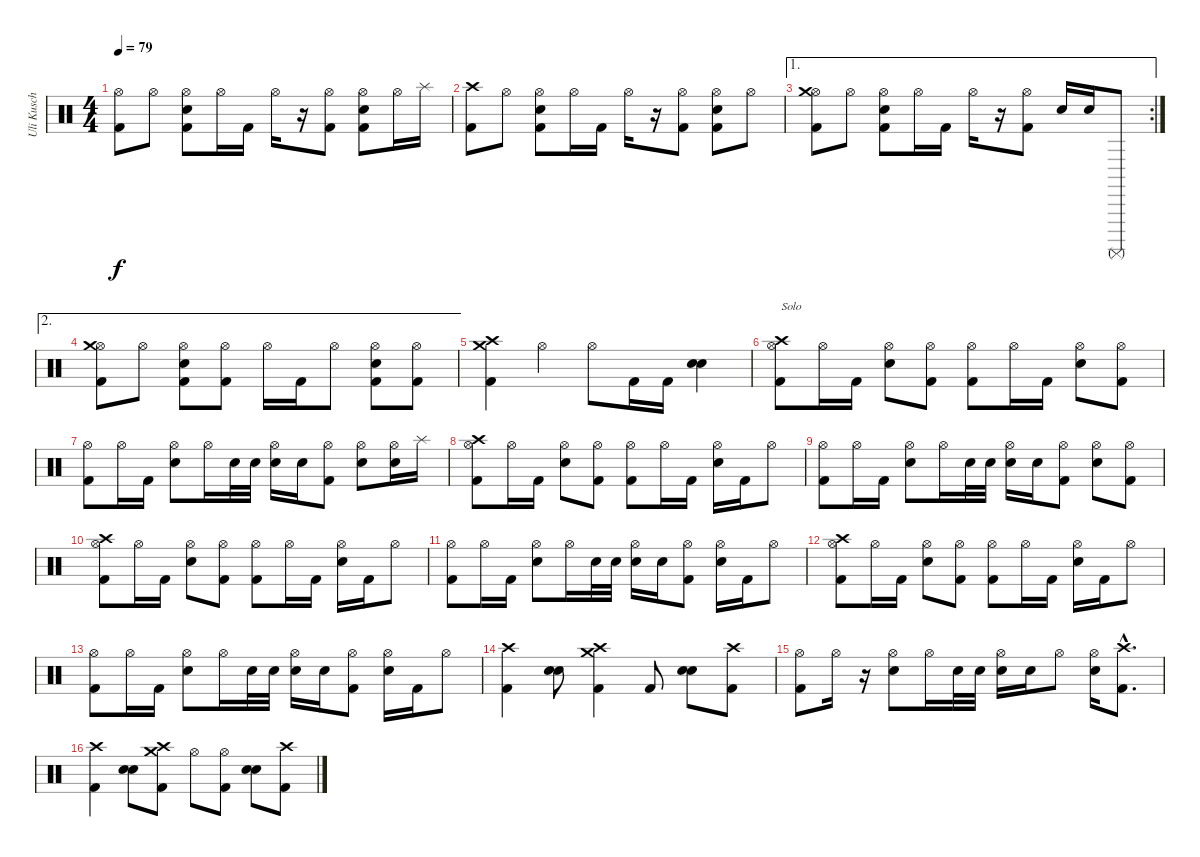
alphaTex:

\track ("Uli Kusch" "Uli Kusch") {instrument percussion}
\staff {score}
\articulation defaults
\ts (4 4)
\tempo 79
\clef neutral
\ks c
("Kick (hit) 2" "Hi-Hat (open)").8{dy f} "Hi-Hat (open)".8 ("Snare (hit) 2" "Kick (hit) 2" "Hi-Hat (open)").8 "Hi-Hat (open)".16 "Kick (hit) 2".16 "Hi-Hat (open)".16 r.16 ("Kick (hit) 2" "Hi-Hat (open)").8 ("Kick (hit) 2" "Snare (hit) 2" "Hi-Hat (open)").8 "Hi-Hat (open)".16 "Splash (hit)".16 |
("Kick (hit) 2" "Crash high (hit)").8 "Hi-Hat (open)".8 ("Snare (hit) 2" "Kick (hit) 2" "Hi-Hat (open)").8 "Hi-Hat (open)".16 "Kick (hit) 2".16 "Hi-Hat (open)".16 r.16 ("Kick (hit) 2" "Hi-Hat (open)").8 ("Kick (hit) 2" "Snare (hit) 2" "Hi-Hat (open)").8 "Hi-Hat (open)".8 |
\ae 1
\rc 2
("Kick (hit) 2" "Hi-Hat (open)" "Crash medium (hit)").8 "Hi-Hat (open)".8 ("Snare (hit) 2" "Kick (hit) 2" "Hi-Hat (open)").8 "Hi-Hat (open)".16 "Kick (hit) 2".16 "Hi-Hat (open)".16 r.16 ("Kick (hit) 2" "Hi-Hat (open)").8 "Snare (hit) 2".16 "Snare (hit) 2".16 "Surdo (mute)".8 |
\ae 2
("Kick (hit) 2" "Hi-Hat (open)" "Crash medium (hit)").8 "Hi-Hat (open)".8 ("Snare (hit) 2" "Kick (hit) 2" "Hi-Hat (open)").8 ("Kick (hit) 2" "Hi-Hat (open)").8 "Hi-Hat (open)".16 "Kick (hit) 2".16 "Hi-Hat (open)".8 ("Kick (hit) 2" "Snare (hit) 2" "Hi-Hat (open)").8 ("Kick (hit) 2" "Hi-Hat (open)").8 |
("Kick (hit) 2" "Crash high (hit)" "Crash medium (hit)").4 "Hi-Hat (open)".4 "Hi-Hat (open)".8 "Kick (hit) 2".16 "Kick (hit) 2".16 ("Snare (hit) 2" "Snare (hit) 2").4{bd 60} |
("Crash high (hit)" "Hi-Hat (open)" "Kick (hit) 2").8{txt "Solo"} "Hi-Hat (open)".16 "Kick (hit) 2".16 ("Snare (hit) 2" "Hi-Hat (open)").8 ("Kick (hit) 2" "Hi-Hat (open)").8 ("Hi-Hat (open)" "Kick (hit) 2").8 "Hi-Hat (open)".16 "Kick (hit) 2".16 ("Snare (hit) 2" "Hi-Hat (open)").8 ("Hi-Hat (open)" "Kick (hit) 2").8 |
("Hi-Hat (open)" "Kick (hit) 2").8 "Hi-Hat (open)".16 "Kick (hit) 2".16 ("Snare (hit) 2" "Hi-Hat (open)").8 "Hi-Hat (open)".16 "Snare (hit) 2".32 "Snare (hit) 2".32 ("Snare (hit) 2" "Hi-Hat (open)").16 "Snare (hit) 2".16 ("Kick (hit) 2" "Hi-Hat (open)").8 ("Snare (hit) 2" "Hi-Hat (open)").8 ("Snare (hit) 2" "Hi-Hat (open)").16 "Splash (hit)".16 |
("Crash high (hit)" "Hi-Hat (open)" "Kick (hit) 2").8 "Hi-Hat (open)".16 "Kick (hit) 2".16 ("Snare (hit) 2" "Hi-Hat (open)").8 ("Kick (hit) 2" "Hi-Hat (open)").8 ("Hi-Hat (open)" "Kick (hit) 2").8 "Hi-Hat (open)".16 "Kick (hit) 2".16 ("Snare (hit) 2" "Hi-Hat (open)").16 "Kick (hit) 2".16 "Hi-Hat (open)".8 |
("Hi-Hat (open)" "Kick (hit) 2").8 "Hi-Hat (open)".16 "Kick (hit) 2".16 ("Snare (hit) 2" "Hi-Hat (open)").8 "Hi-Hat (open)".16 "Snare (hit) 2".32 "Snare (hit) 2".32 ("Snare (hit) 2" "Hi-Hat (open)").16 "Snare (hit) 2".16 ("Kick (hit) 2" "Hi-Hat (open)").8 ("Snare (hit) 2" "Hi-Hat (open)").8 ("Kick (hit) 2" "Hi-Hat (open)").8 |
("Crash high (hit)" "Hi-Hat (open)" "Kick (hit) 2").8 "Hi-Hat (open)".16 "Kick (hit) 2".16 ("Snare (hit) 2" "Hi-Hat (open)").8 ("Kick (hit) 2" "Hi-Hat (open)").8 ("Hi-Hat (open)" "Kick (hit) 2").8 "Hi-Hat (open)".16 "Kick (hit) 2".16 ("Snare (hit) 2" "Hi-Hat (open)").16 "Kick (hit) 2".16 "Hi-Hat (open)".8 |
("Hi-Hat (open)" "Kick (hit) 2").8 "Hi-Hat (open)".16 "Kick (hit) 2".16 ("Snare (hit) 2" "Hi-Hat (open)").8 "Hi-Hat (open)".16 "Snare (hit) 2".32 "Snare (hit) 2".32 ("Snare (hit) 2" "Hi-Hat (open)").16 "Snare (hit) 2".16 ("Kick (hit) 2" "Hi-Hat (open)").8 ("Snare (hit) 2" "Hi-Hat (open)").16 "Kick (hit) 2".16 "Hi-Hat (open)".8 |
("Crash high (hit)" "Hi-Hat (open)" "Kick (hit) 2").8 "Hi-Hat (open)".16 "Kick (hit) 2".16 ("Snare (hit) 2" "Hi-Hat (open)").8 ("Kick (hit) 2" "Hi-Hat (open)").8 ("Hi-Hat (open)" "Kick (hit) 2").8 "Hi-Hat (open)".16 "Kick (hit) 2".16 ("Snare (hit) 2" "Hi-Hat (open)").16 "Kick (hit) 2".16 "Hi-Hat (open)".8 |
("Hi-Hat (open)" "Kick (hit) 2").8 "Hi-Hat (open)".16 "Kick (hit) 2".16 ("Snare (hit) 2" "Hi-Hat (open)").8 "Hi-Hat (open)".16 "Snare (hit) 2".32 "Snare (hit) 2".32 ("Snare (hit) 2" "Hi-Hat (open)").16 "Snare (hit) 2".16 ("Kick (hit) 2" "Hi-Hat (open)").8 ("Snare (hit) 2" "Hi-Hat (open)").16 "Kick (hit) 2".16 "Hi-Hat (open)".8 |
("Crash high (hit)" "Kick (hit) 2").4 ("Snare (hit) 2" "Snare (hit) 2").8{bd 60} ("Kick (hit) 2" "Crash high (hit)" "Crash medium (hit)").4 "Kick (hit) 2".8 ("Snare (hit) 2" "Snare (hit) 2").8 ("Crash high (hit)" "Kick (hit) 2").8 |
("Hi-Hat (open)" "Kick (hit) 2").8 "Hi-Hat (open)".16 r.16 ("Snare (hit) 2" "Hi-Hat (open)").8 "Hi-Hat (open)".16 "Snare (hit) 2".32 "Snare (hit) 2".32 ("Snare (hit) 2" "Hi-Hat (open)").16 "Snare (hit) 2".16 "Hi-Hat (open)".8 ("Snare (hit) 2" "Hi-Hat (open)").16 ("Crash high (hit)"{hac} "Kick (hit) 2"{hac}).8{d} |
("Crash high (hit)" "Kick (hit) 2").4 ("Snare (hit) 2" "Snare (hit) 2").8{bd 60} ("Kick (hit) 2" "Crash high (hit)" "Crash medium (hit)").8 "Hi-Hat (open)".8 ("Hi-Hat (open)" "Kick (hit) 2").8 ("Snare (hit) 2" "Snare (hit) 2").8 ("Kick (hit) 2" "Crash high (hit)").8
